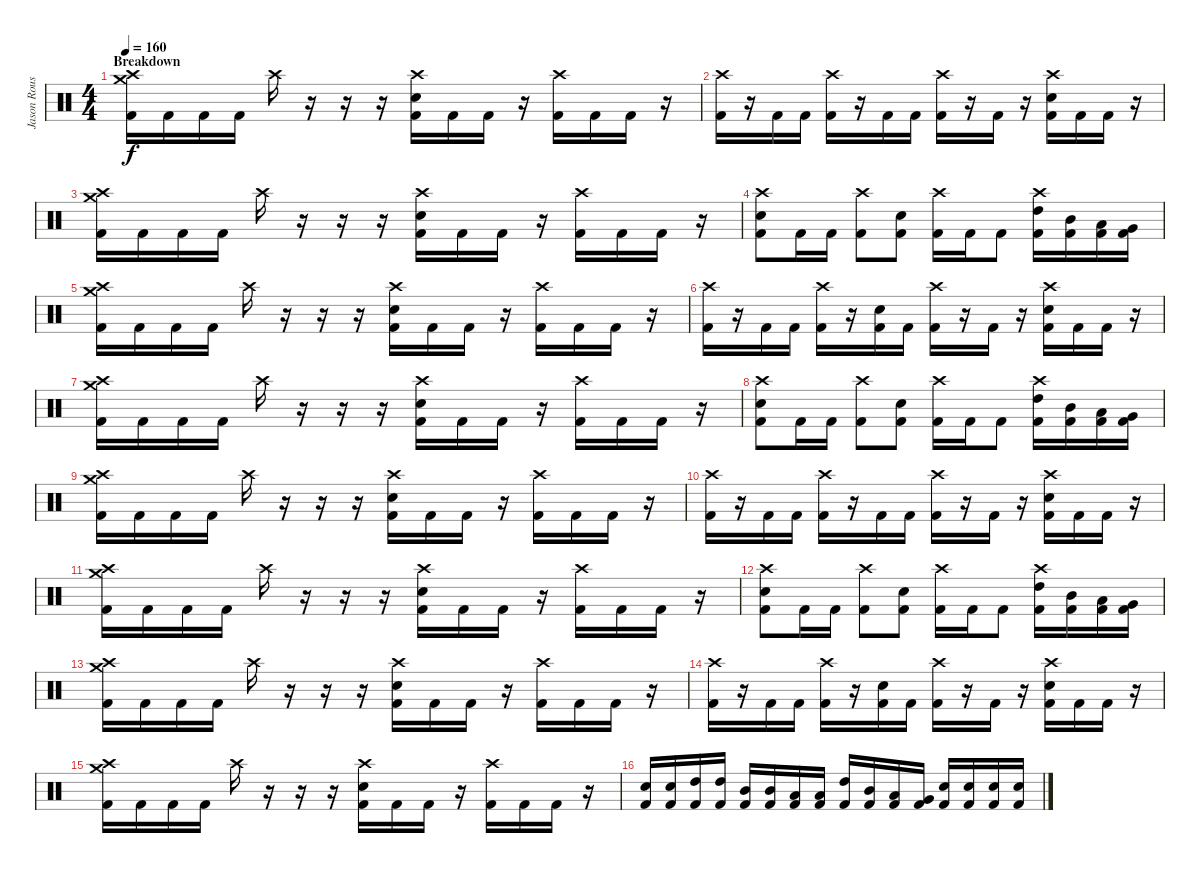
\track ("Jason Rousseau" "Jason Rous") {instrument percussion}
\staff {score}
\articulation defaults
\ts (4 4)
\section ("" "Breakdown")
\tempo 160
\clef neutral
\ks c
("Crash high (hit)" "Crash medium (hit)" "Kick (hit) 2").16{dy f} "Kick (hit) 2".16 "Kick (hit) 2".16 "Kick (hit) 2".16 "Crash high (hit)".16 r.16 r.16 r.16 ("Crash high (hit)" "Electric Snare (hit)" "Kick (hit) 2").16 "Kick (hit) 2".16 "Kick (hit) 2".16 r.16 ("Crash high (hit)" "Kick (hit) 2").16 "Kick (hit) 2".16 "Kick (hit) 2".16 r.16 |
("Crash high (hit)" "Kick (hit) 2").16 r.16 "Kick (hit) 2".16 "Kick (hit) 2".16 ("Crash high (hit)" "Kick (hit) 2").16 r.16 "Kick (hit) 2".16 "Kick (hit) 2".16 ("Crash high (hit)" "Kick (hit) 2").16 r.16 "Kick (hit) 2".16 r.16 ("Crash high (hit)" "Electric Snare (hit)" "Kick (hit) 2").16 "Kick (hit) 2".16 "Kick (hit) 2".16 r.16 |
("Crash high (hit)" "Crash medium (hit)" "Kick (hit) 2").16 "Kick (hit) 2".16 "Kick (hit) 2".16 "Kick (hit) 2".16 "Crash high (hit)".16 r.16 r.16 r.16 ("Crash high (hit)" "Electric Snare (hit)" "Kick (hit) 2").16 "Kick (hit) 2".16 "Kick (hit) 2".16 r.16 ("Crash high (hit)" "Kick (hit) 2").16 "Kick (hit) 2".16 "Kick (hit) 2".16 r.16 |
("Crash high (hit)" "Electric Snare (hit)" "Kick (hit) 2").8 "Kick (hit) 2".16 "Kick (hit) 2".16 ("Crash high (hit)" "Kick (hit) 2").8 ("Electric Snare (hit)" "Kick (hit) 2").8 ("Crash high (hit)" "Kick (hit) 2").16 "Kick (hit) 2".16 "Kick (hit) 2".8 ("Crash high (hit)" "High Tom (hit)" "Kick (hit) 2").16 ("Mid Tom (hit)" "Kick (hit) 2").16 ("Low Tom (hit)" "Kick (hit) 2").16 ("Very Low Tom (hit)" "Kick (hit) 2").16 |
("Crash high (hit)" "Crash medium (hit)" "Kick (hit) 2").16 "Kick (hit) 2".16 "Kick (hit) 2".16 "Kick (hit) 2".16 "Crash high (hit)".16 r.16 r.16 r.16 ("Crash high (hit)" "Electric Snare (hit)" "Kick (hit) 2").16 "Kick (hit) 2".16 "Kick (hit) 2".16 r.16 ("Crash high (hit)" "Kick (hit) 2").16 "Kick (hit) 2".16 "Kick (hit) 2".16 r.16 |
("Crash high (hit)" "Kick (hit) 2").16 r.16 "Kick (hit) 2".16 "Kick (hit) 2".16 ("Crash high (hit)" "Kick (hit) 2").16 r.16 ("Electric Snare (hit)" "Kick (hit) 2").16 "Kick (hit) 2".16 ("Crash high (hit)" "Kick (hit) 2").16 r.16 "Kick (hit) 2".16 r.16 ("Crash high (hit)" "Electric Snare (hit)" "Kick (hit) 2").16 "Kick (hit) 2".16 "Kick (hit) 2".16 r.16 |
("Crash high (hit)" "Crash medium (hit)" "Kick (hit) 2").16 "Kick (hit) 2".16 "Kick (hit) 2".16 "Kick (hit) 2".16 "Crash high (hit)".16 r.16 r.16 r.16 ("Crash high (hit)" "Electric Snare (hit)" "Kick (hit) 2").16 "Kick (hit) 2".16 "Kick (hit) 2".16 r.16 ("Crash high (hit)" "Kick (hit) 2").16 "Kick (hit) 2".16 "Kick (hit) 2".16 r.16 |
("Crash high (hit)" "Electric Snare (hit)" "Kick (hit) 2").8 "Kick (hit) 2".16 "Kick (hit) 2".16 ("Crash high (hit)" "Kick (hit) 2").8 ("Electric Snare (hit)" "Kick (hit) 2").8 ("Crash high (hit)" "Kick (hit) 2").16 "Kick (hit) 2".16 "Kick (hit) 2".8 ("Crash high (hit)" "High Tom (hit)" "Kick (hit) 2").16 ("Mid Tom (hit)" "Kick (hit) 2").16 ("Low Tom (hit)" "Kick (hit) 2").16 ("Very Low Tom (hit)" "Kick (hit) 2").16 |
("Crash high (hit)" "Crash medium (hit)" "Kick (hit) 2").16 "Kick (hit) 2".16 "Kick (hit) 2".16 "Kick (hit) 2".16 "Crash high (hit)".16 r.16 r.16 r.16 ("Crash high (hit)" "Electric Snare (hit)" "Kick (hit) 2").16 "Kick (hit) 2".16 "Kick (hit) 2".16 r.16 ("Crash high (hit)" "Kick (hit) 2").16 "Kick (hit) 2".16 "Kick (hit) 2".16 r.16 |
("Crash high (hit)" "Kick (hit) 2").16 r.16 "Kick (hit) 2".16 "Kick (hit) 2".16 ("Crash high (hit)" "Kick (hit) 2").16 r.16 "Kick (hit) 2".16 "Kick (hit) 2".16 ("Crash high (hit)" "Kick (hit) 2").16 r.16 "Kick (hit) 2".16 r.16 ("Crash high (hit)" "Electric Snare (hit)" "Kick (hit) 2").16 "Kick (hit) 2".16 "Kick (hit) 2".16 r.16 |
("Crash high (hit)" "Crash medium (hit)" "Kick (hit) 2").16 "Kick (hit) 2".16 "Kick (hit) 2".16 "Kick (hit) 2".16 "Crash high (hit)".16 r.16 r.16 r.16 ("Crash high (hit)" "Electric Snare (hit)" "Kick (hit) 2").16 "Kick (hit) 2".16 "Kick (hit) 2".16 r.16 ("Crash high (hit)" "Kick (hit) 2").16 "Kick (hit) 2".16 "Kick (hit) 2".16 r.16 |
("Crash high (hit)" "Electric Snare (hit)" "Kick (hit) 2").8 "Kick (hit) 2".16 "Kick (hit) 2".16 ("Crash high (hit)" "Kick (hit) 2").8 ("Electric Snare (hit)" "Kick (hit) 2").8 ("Crash high (hit)" "Kick (hit) 2").16 "Kick (hit) 2".16 "Kick (hit) 2".8 ("Crash high (hit)" "High Tom (hit)" "Kick (hit) 2").16 ("Mid Tom (hit)" "Kick (hit) 2").16 ("Low Tom (hit)" "Kick (hit) 2").16 ("Very Low Tom (hit)" "Kick (hit) 2").16 |
("Crash high (hit)" "Crash medium (hit)" "Kick (hit) 2").16 "Kick (hit) 2".16 "Kick (hit) 2".16 "Kick (hit) 2".16 "Crash high (hit)".16 r.16 r.16 r.16 ("Crash high (hit)" "Electric Snare (hit)" "Kick (hit) 2").16 "Kick (hit) 2".16 "Kick (hit) 2".16 r.16 ("Crash high (hit)" "Kick (hit) 2").16 "Kick (hit) 2".16 "Kick (hit) 2".16 r.16 |
("Crash high (hit)" "Kick (hit) 2").16 r.16 "Kick (hit) 2".16 "Kick (hit) 2".16 ("Crash high (hit)" "Kick (hit) 2").16 r.16 ("Electric Snare (hit)" "Kick (hit) 2").16 "Kick (hit) 2".16 ("Crash high (hit)" "Kick (hit) 2").16 r.16 "Kick (hit) 2".16 r.16 ("Crash high (hit)" "Electric Snare (hit)" "Kick (hit) 2").16 "Kick (hit) 2".16 "Kick (hit) 2".16 r.16 |
("Crash high (hit)" "Crash medium (hit)" "Kick (hit) 2").16 "Kick (hit) 2".16 "Kick (hit) 2".16 "Kick (hit) 2".16 "Crash high (hit)".16 r.16 r.16 r.16 ("Crash high (hit)" "Electric Snare (hit)" "Kick (hit) 2").16 "Kick (hit) 2".16 "Kick (hit) 2".16 r.16 ("Crash high (hit)" "Kick (hit) 2").16 "Kick (hit) 2".16 "Kick (hit) 2".16 r.16 |
("Electric Snare (hit)" "Kick (hit) 2").16 ("Electric Snare (hit)" "Kick (hit) 2").16 ("High Tom (hit)" "Kick (hit) 2").16 ("High Tom (hit)" "Kick (hit) 2").16 ("Mid Tom (hit)" "Kick (hit) 2").16 ("Mid Tom (hit)" "Kick (hit) 2").16 ("Low Tom (hit)" "Kick (hit) 2").16 ("Low Tom (hit)" "Kick (hit) 2").16 ("High Tom (hit)" "Kick (hit) 2").16 ("Mid Tom (hit)" "Kick (hit) 2").16 ("Low Tom (hit)" "Kick (hit) 2").16 ("Very Low Tom (hit)" "Kick (hit) 2").16 ("Electric Snare (hit)" "Kick (hit) 2").16 ("Electric Snare (hit)" "Kick (hit) 2").16 ("Electric Snare (hit)" "Kick (hit) 2").16 ("Electric Snare (hit)" "Kick (hit) 2").16
